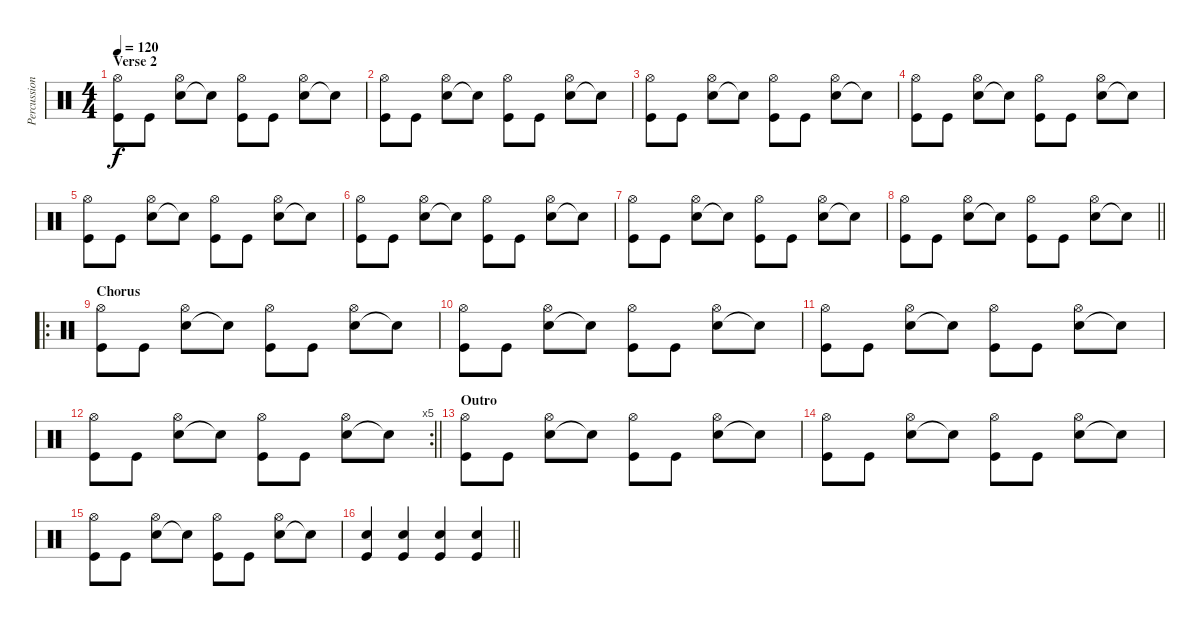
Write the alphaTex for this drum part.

\track ("Percussion" "Percussion") {instrument percussion}
\staff {score}
\articulation defaults
\ts (4 4)
\section ("" "Verse 2")
\tempo 120
\clef neutral
\ks c
("Kick (hit)" "Hi-Hat (open)").8{dy f} "Kick (hit)".8 ("Snare (hit) 2" "Hi-Hat (open)").8 "Snare (hit) 2"{t}.8 ("Kick (hit)" "Hi-Hat (open)").8 "Kick (hit)".8 ("Snare (hit) 2" "Hi-Hat (open)").8 "Snare (hit) 2"{t}.8 |
("Kick (hit)" "Hi-Hat (open)").8 "Kick (hit)".8 ("Snare (hit) 2" "Hi-Hat (open)").8 "Snare (hit) 2"{t}.8 ("Kick (hit)" "Hi-Hat (open)").8 "Kick (hit)".8 ("Snare (hit) 2" "Hi-Hat (open)").8 "Snare (hit) 2"{t}.8 |
("Kick (hit)" "Hi-Hat (open)").8 "Kick (hit)".8 ("Snare (hit) 2" "Hi-Hat (open)").8 "Snare (hit) 2"{t}.8 ("Kick (hit)" "Hi-Hat (open)").8 "Kick (hit)".8 ("Snare (hit) 2" "Hi-Hat (open)").8 "Snare (hit) 2"{t}.8 |
("Kick (hit)" "Hi-Hat (open)").8 "Kick (hit)".8 ("Snare (hit) 2" "Hi-Hat (open)").8 "Snare (hit) 2"{t}.8 ("Kick (hit)" "Hi-Hat (open)").8 "Kick (hit)".8 ("Snare (hit) 2" "Hi-Hat (open)").8 "Snare (hit) 2"{t}.8 |
("Kick (hit)" "Hi-Hat (open)").8 "Kick (hit)".8 ("Snare (hit) 2" "Hi-Hat (open)").8 "Snare (hit) 2"{t}.8 ("Kick (hit)" "Hi-Hat (open)").8 "Kick (hit)".8 ("Snare (hit) 2" "Hi-Hat (open)").8 "Snare (hit) 2"{t}.8 |
("Kick (hit)" "Hi-Hat (open)").8 "Kick (hit)".8 ("Snare (hit) 2" "Hi-Hat (open)").8 "Snare (hit) 2"{t}.8 ("Kick (hit)" "Hi-Hat (open)").8 "Kick (hit)".8 ("Snare (hit) 2" "Hi-Hat (open)").8 "Snare (hit) 2"{t}.8 |
("Kick (hit)" "Hi-Hat (open)").8 "Kick (hit)".8 ("Snare (hit) 2" "Hi-Hat (open)").8 "Snare (hit) 2"{t}.8 ("Kick (hit)" "Hi-Hat (open)").8 "Kick (hit)".8 ("Snare (hit) 2" "Hi-Hat (open)").8 "Snare (hit) 2"{t}.8 |
\barLineRight lightlight
("Kick (hit)" "Hi-Hat (open)").8 "Kick (hit)".8 ("Snare (hit) 2" "Hi-Hat (open)").8 "Snare (hit) 2"{t}.8 ("Kick (hit)" "Hi-Hat (open)").8 "Kick (hit)".8 ("Snare (hit) 2" "Hi-Hat (open)").8 "Snare (hit) 2"{t}.8 |
\ro
\section ("" "Chorus")
("Kick (hit)" "Hi-Hat (open)").8 "Kick (hit)".8 ("Snare (hit) 2" "Hi-Hat (open)").8 "Snare (hit) 2"{t}.8 ("Kick (hit)" "Hi-Hat (open)").8 "Kick (hit)".8 ("Snare (hit) 2" "Hi-Hat (open)").8 "Snare (hit) 2"{t}.8 |
("Kick (hit)" "Hi-Hat (open)").8 "Kick (hit)".8 ("Snare (hit) 2" "Hi-Hat (open)").8 "Snare (hit) 2"{t}.8 ("Kick (hit)" "Hi-Hat (open)").8 "Kick (hit)".8 ("Snare (hit) 2" "Hi-Hat (open)").8 "Snare (hit) 2"{t}.8 |
("Kick (hit)" "Hi-Hat (open)").8 "Kick (hit)".8 ("Snare (hit) 2" "Hi-Hat (open)").8 "Snare (hit) 2"{t}.8 ("Kick (hit)" "Hi-Hat (open)").8 "Kick (hit)".8 ("Snare (hit) 2" "Hi-Hat (open)").8 "Snare (hit) 2"{t}.8 |
\rc 5
\barLineRight lightlight
("Kick (hit)" "Hi-Hat (open)").8 "Kick (hit)".8 ("Snare (hit) 2" "Hi-Hat (open)").8 "Snare (hit) 2"{t}.8 ("Kick (hit)" "Hi-Hat (open)").8 "Kick (hit)".8 ("Snare (hit) 2" "Hi-Hat (open)").8 "Snare (hit) 2"{t}.8 |
\section ("" "Outro")
("Kick (hit)" "Hi-Hat (open)").8 "Kick (hit)".8 ("Snare (hit) 2" "Hi-Hat (open)").8 "Snare (hit) 2"{t}.8 ("Kick (hit)" "Hi-Hat (open)").8 "Kick (hit)".8 ("Snare (hit) 2" "Hi-Hat (open)").8 "Snare (hit) 2"{t}.8 |
("Kick (hit)" "Hi-Hat (open)").8 "Kick (hit)".8 ("Snare (hit) 2" "Hi-Hat (open)").8 "Snare (hit) 2"{t}.8 ("Kick (hit)" "Hi-Hat (open)").8 "Kick (hit)".8 ("Snare (hit) 2" "Hi-Hat (open)").8 "Snare (hit) 2"{t}.8 |
("Kick (hit)" "Hi-Hat (open)").8 "Kick (hit)".8 ("Snare (hit) 2" "Hi-Hat (open)").8 "Snare (hit) 2"{t}.8 ("Kick (hit)" "Hi-Hat (open)").8 "Kick (hit)".8 ("Snare (hit) 2" "Hi-Hat (open)").8 "Snare (hit) 2"{t}.8 |
\barLineRight lightlight
("Kick (hit)" "Snare (hit) 2").4 ("Kick (hit)" "Snare (hit) 2").4 ("Kick (hit)" "Snare (hit) 2").4 ("Kick (hit)" "Snare (hit) 2").4
